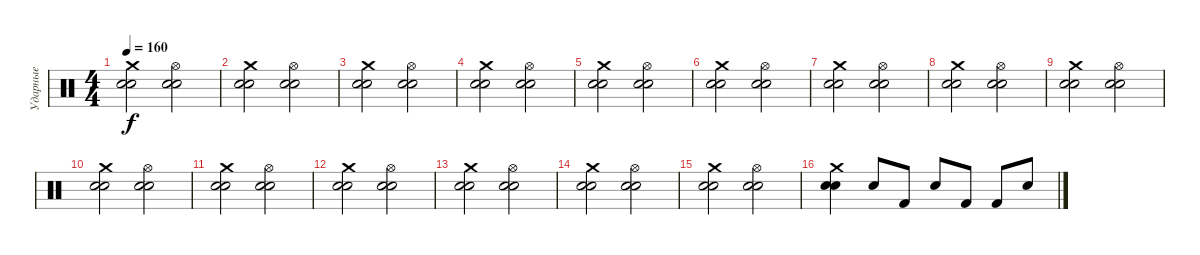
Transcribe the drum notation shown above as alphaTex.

\track ("Ударные" "Ударные") {instrument percussion}
\staff {score}
\articulation defaults
\ts (4 4)
\tempo 160
\clef neutral
\ks c
("Crash medium (hit)" "Snare (hit) 2" "Snare (hit) 2").2{dy f} ("Hi-Hat (open)" "Snare (hit) 2" "Snare (hit) 2").2 |
("Crash medium (hit)" "Snare (hit) 2" "Snare (hit) 2").2 ("Hi-Hat (open)" "Snare (hit) 2" "Snare (hit) 2").2 |
("Crash medium (hit)" "Snare (hit) 2" "Snare (hit) 2").2 ("Hi-Hat (open)" "Snare (hit) 2" "Snare (hit) 2").2 |
("Crash medium (hit)" "Snare (hit) 2" "Snare (hit) 2").2 ("Hi-Hat (open)" "Snare (hit) 2" "Snare (hit) 2").2 |
("Crash medium (hit)" "Snare (hit) 2" "Snare (hit) 2").2 ("Hi-Hat (open)" "Snare (hit) 2" "Snare (hit) 2").2 |
("Crash medium (hit)" "Snare (hit) 2" "Snare (hit) 2").2 ("Hi-Hat (open)" "Snare (hit) 2" "Snare (hit) 2").2 |
("Crash medium (hit)" "Snare (hit) 2" "Snare (hit) 2").2 ("Hi-Hat (open)" "Snare (hit) 2" "Snare (hit) 2").2 |
("Crash medium (hit)" "Snare (hit) 2" "Snare (hit) 2").2 ("Hi-Hat (open)" "Snare (hit) 2" "Snare (hit) 2").2 |
("Crash medium (hit)" "Snare (hit) 2" "Snare (hit) 2").2 ("Hi-Hat (open)" "Snare (hit) 2" "Snare (hit) 2").2 |
("Crash medium (hit)" "Snare (hit) 2" "Snare (hit) 2").2 ("Hi-Hat (open)" "Snare (hit) 2" "Snare (hit) 2").2 |
("Crash medium (hit)" "Snare (hit) 2" "Snare (hit) 2").2 ("Hi-Hat (open)" "Snare (hit) 2" "Snare (hit) 2").2 |
("Crash medium (hit)" "Snare (hit) 2" "Snare (hit) 2").2 ("Hi-Hat (open)" "Snare (hit) 2" "Snare (hit) 2").2 |
("Crash medium (hit)" "Snare (hit) 2" "Snare (hit) 2").2 ("Hi-Hat (open)" "Snare (hit) 2" "Snare (hit) 2").2 |
("Crash medium (hit)" "Snare (hit) 2" "Snare (hit) 2").2 ("Hi-Hat (open)" "Snare (hit) 2" "Snare (hit) 2").2 |
("Crash medium (hit)" "Snare (hit) 2" "Snare (hit) 2").2 ("Hi-Hat (open)" "Snare (hit) 2" "Snare (hit) 2").2 |
("Crash medium (hit)" "Snare (hit) 2" "Snare (hit) 2").4 "Snare (hit) 2".8 "Kick (hit) 2".8 "Snare (hit) 2".8 "Kick (hit) 2".8 "Kick (hit) 2".8 "Snare (hit) 2".8
